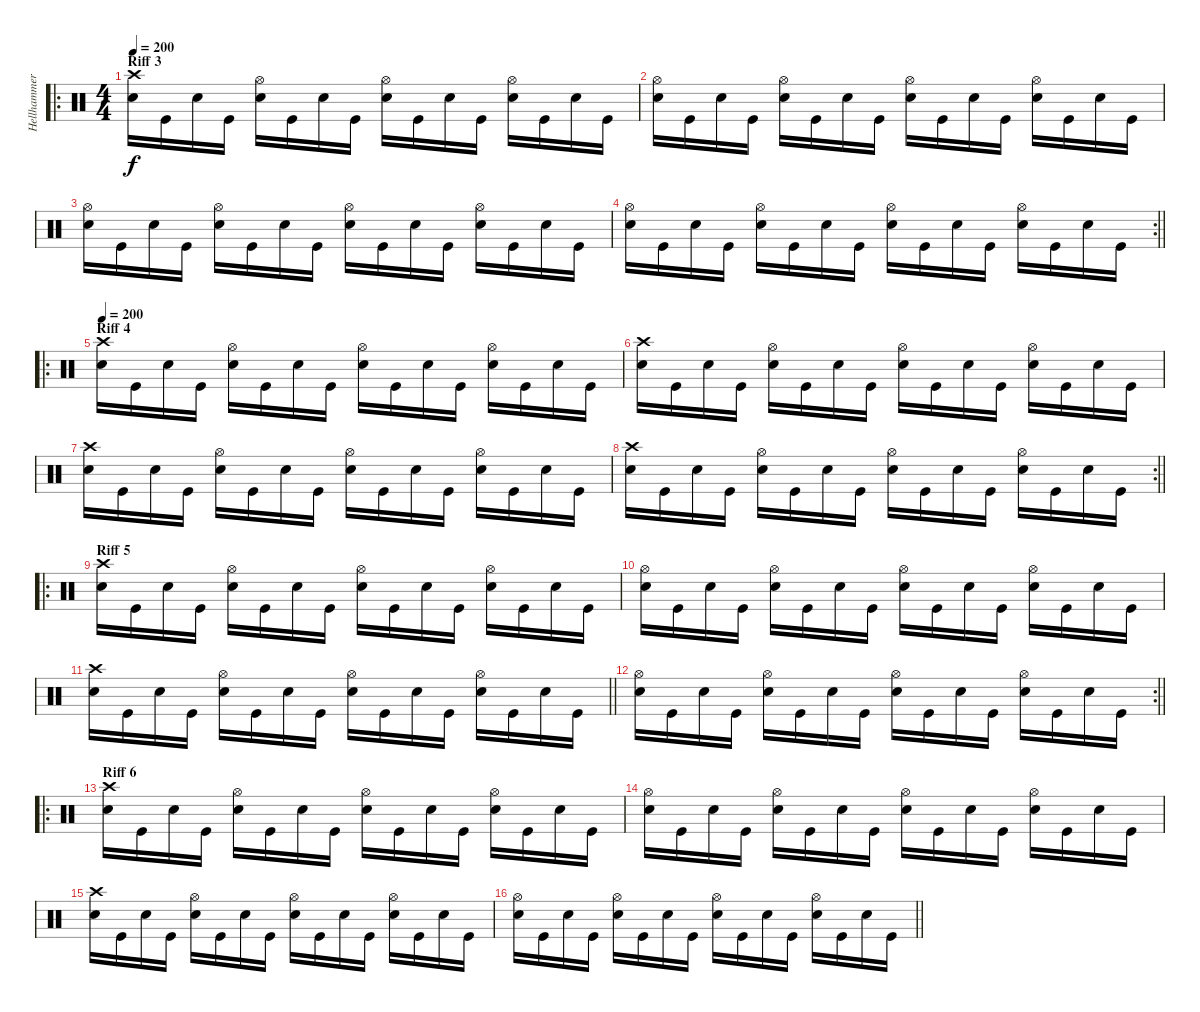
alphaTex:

\track ("Hellhammer" "Hellhammer") {instrument percussion}
\staff {score}
\articulation defaults
\ro
\ts (4 4)
\section ("" "Riff 3")
\tempo 200
\clef neutral
\ks c
("Crash high (hit)" "Snare (hit) 2").16{dy f} "Kick (hit)".16 "Snare (hit) 2".16 "Kick (hit)".16 ("Hi-Hat (open)" "Snare (hit) 2").16 "Kick (hit)".16 "Snare (hit) 2".16 "Kick (hit)".16 ("Hi-Hat (open)" "Snare (hit) 2").16 "Kick (hit)".16 "Snare (hit) 2".16 "Kick (hit)".16 ("Hi-Hat (open)" "Snare (hit) 2").16 "Kick (hit)".16 "Snare (hit) 2".16 "Kick (hit)".16 |
("Hi-Hat (open)" "Snare (hit) 2").16 "Kick (hit)".16 "Snare (hit) 2".16 "Kick (hit)".16 ("Hi-Hat (open)" "Snare (hit) 2").16 "Kick (hit)".16 "Snare (hit) 2".16 "Kick (hit)".16 ("Hi-Hat (open)" "Snare (hit) 2").16 "Kick (hit)".16 "Snare (hit) 2".16 "Kick (hit)".16 ("Hi-Hat (open)" "Snare (hit) 2").16 "Kick (hit)".16 "Snare (hit) 2".16 "Kick (hit)".16 |
("Hi-Hat (open)" "Snare (hit) 2").16 "Kick (hit)".16 "Snare (hit) 2".16 "Kick (hit)".16 ("Hi-Hat (open)" "Snare (hit) 2").16 "Kick (hit)".16 "Snare (hit) 2".16 "Kick (hit)".16 ("Hi-Hat (open)" "Snare (hit) 2").16 "Kick (hit)".16 "Snare (hit) 2".16 "Kick (hit)".16 ("Hi-Hat (open)" "Snare (hit) 2").16 "Kick (hit)".16 "Snare (hit) 2".16 "Kick (hit)".16 |
\rc 2
\barLineRight lightlight
("Hi-Hat (open)" "Snare (hit) 2").16 "Kick (hit)".16 "Snare (hit) 2".16 "Kick (hit)".16 ("Hi-Hat (open)" "Snare (hit) 2").16 "Kick (hit)".16 "Snare (hit) 2".16 "Kick (hit)".16 ("Hi-Hat (open)" "Snare (hit) 2").16 "Kick (hit)".16 "Snare (hit) 2".16 "Kick (hit)".16 ("Hi-Hat (open)" "Snare (hit) 2").16 "Kick (hit)".16 "Snare (hit) 2".16 "Kick (hit)".16 |
\ro
\section ("" "Riff 4")
\tempo 200
("Crash high (hit)" "Snare (hit) 2").16 "Kick (hit)".16 "Snare (hit) 2".16 "Kick (hit)".16 ("Hi-Hat (open)" "Snare (hit) 2").16 "Kick (hit)".16 "Snare (hit) 2".16 "Kick (hit)".16 ("Hi-Hat (open)" "Snare (hit) 2").16 "Kick (hit)".16 "Snare (hit) 2".16 "Kick (hit)".16 ("Hi-Hat (open)" "Snare (hit) 2").16 "Kick (hit)".16 "Snare (hit) 2".16 "Kick (hit)".16 |
("Crash high (hit)" "Snare (hit) 2").16 "Kick (hit)".16 "Snare (hit) 2".16 "Kick (hit)".16 ("Hi-Hat (open)" "Snare (hit) 2").16 "Kick (hit)".16 "Snare (hit) 2".16 "Kick (hit)".16 ("Hi-Hat (open)" "Snare (hit) 2").16 "Kick (hit)".16 "Snare (hit) 2".16 "Kick (hit)".16 ("Hi-Hat (open)" "Snare (hit) 2").16 "Kick (hit)".16 "Snare (hit) 2".16 "Kick (hit)".16 |
("Crash high (hit)" "Snare (hit) 2").16 "Kick (hit)".16 "Snare (hit) 2".16 "Kick (hit)".16 ("Hi-Hat (open)" "Snare (hit) 2").16 "Kick (hit)".16 "Snare (hit) 2".16 "Kick (hit)".16 ("Hi-Hat (open)" "Snare (hit) 2").16 "Kick (hit)".16 "Snare (hit) 2".16 "Kick (hit)".16 ("Hi-Hat (open)" "Snare (hit) 2").16 "Kick (hit)".16 "Snare (hit) 2".16 "Kick (hit)".16 |
\rc 2
\barLineRight lightlight
("Crash high (hit)" "Snare (hit) 2").16 "Kick (hit)".16 "Snare (hit) 2".16 "Kick (hit)".16 ("Hi-Hat (open)" "Snare (hit) 2").16 "Kick (hit)".16 "Snare (hit) 2".16 "Kick (hit)".16 ("Hi-Hat (open)" "Snare (hit) 2").16 "Kick (hit)".16 "Snare (hit) 2".16 "Kick (hit)".16 ("Hi-Hat (open)" "Snare (hit) 2").16 "Kick (hit)".16 "Snare (hit) 2".16 "Kick (hit)".16 |
\ro
\section ("" "Riff 5")
("Crash high (hit)" "Snare (hit) 2").16 "Kick (hit)".16 "Snare (hit) 2".16 "Kick (hit)".16 ("Hi-Hat (open)" "Snare (hit) 2").16 "Kick (hit)".16 "Snare (hit) 2".16 "Kick (hit)".16 ("Hi-Hat (open)" "Snare (hit) 2").16 "Kick (hit)".16 "Snare (hit) 2".16 "Kick (hit)".16 ("Hi-Hat (open)" "Snare (hit) 2").16 "Kick (hit)".16 "Snare (hit) 2".16 "Kick (hit)".16 |
("Hi-Hat (open)" "Snare (hit) 2").16 "Kick (hit)".16 "Snare (hit) 2".16 "Kick (hit)".16 ("Hi-Hat (open)" "Snare (hit) 2").16 "Kick (hit)".16 "Snare (hit) 2".16 "Kick (hit)".16 ("Hi-Hat (open)" "Snare (hit) 2").16 "Kick (hit)".16 "Snare (hit) 2".16 "Kick (hit)".16 ("Hi-Hat (open)" "Snare (hit) 2").16 "Kick (hit)".16 "Snare (hit) 2".16 "Kick (hit)".16 |
\barLineRight lightlight
("Crash high (hit)" "Snare (hit) 2").16 "Kick (hit)".16 "Snare (hit) 2".16 "Kick (hit)".16 ("Hi-Hat (open)" "Snare (hit) 2").16 "Kick (hit)".16 "Snare (hit) 2".16 "Kick (hit)".16 ("Hi-Hat (open)" "Snare (hit) 2").16 "Kick (hit)".16 "Snare (hit) 2".16 "Kick (hit)".16 ("Hi-Hat (open)" "Snare (hit) 2").16 "Kick (hit)".16 "Snare (hit) 2".16 "Kick (hit)".16 |
\rc 2
\barLineRight lightlight
("Hi-Hat (open)" "Snare (hit) 2").16 "Kick (hit)".16 "Snare (hit) 2".16 "Kick (hit)".16 ("Hi-Hat (open)" "Snare (hit) 2").16 "Kick (hit)".16 "Snare (hit) 2".16 "Kick (hit)".16 ("Hi-Hat (open)" "Snare (hit) 2").16 "Kick (hit)".16 "Snare (hit) 2".16 "Kick (hit)".16 ("Hi-Hat (open)" "Snare (hit) 2").16 "Kick (hit)".16 "Snare (hit) 2".16 "Kick (hit)".16 |
\ro
\section ("" "Riff 6")
("Crash high (hit)" "Snare (hit) 2").16 "Kick (hit)".16 "Snare (hit) 2".16 "Kick (hit)".16 ("Hi-Hat (open)" "Snare (hit) 2").16 "Kick (hit)".16 "Snare (hit) 2".16 "Kick (hit)".16 ("Hi-Hat (open)" "Snare (hit) 2").16 "Kick (hit)".16 "Snare (hit) 2".16 "Kick (hit)".16 ("Hi-Hat (open)" "Snare (hit) 2").16 "Kick (hit)".16 "Snare (hit) 2".16 "Kick (hit)".16 |
("Hi-Hat (open)" "Snare (hit) 2").16 "Kick (hit)".16 "Snare (hit) 2".16 "Kick (hit)".16 ("Hi-Hat (open)" "Snare (hit) 2").16 "Kick (hit)".16 "Snare (hit) 2".16 "Kick (hit)".16 ("Hi-Hat (open)" "Snare (hit) 2").16 "Kick (hit)".16 "Snare (hit) 2".16 "Kick (hit)".16 ("Hi-Hat (open)" "Snare (hit) 2").16 "Kick (hit)".16 "Snare (hit) 2".16 "Kick (hit)".16 |
("Crash high (hit)" "Snare (hit) 2").16 "Kick (hit)".16 "Snare (hit) 2".16 "Kick (hit)".16 ("Hi-Hat (open)" "Snare (hit) 2").16 "Kick (hit)".16 "Snare (hit) 2".16 "Kick (hit)".16 ("Hi-Hat (open)" "Snare (hit) 2").16 "Kick (hit)".16 "Snare (hit) 2".16 "Kick (hit)".16 ("Hi-Hat (open)" "Snare (hit) 2").16 "Kick (hit)".16 "Snare (hit) 2".16 "Kick (hit)".16 |
\barLineRight lightlight
("Hi-Hat (open)" "Snare (hit) 2").16 "Kick (hit)".16 "Snare (hit) 2".16 "Kick (hit)".16 ("Hi-Hat (open)" "Snare (hit) 2").16 "Kick (hit)".16 "Snare (hit) 2".16 "Kick (hit)".16 ("Hi-Hat (open)" "Snare (hit) 2").16 "Kick (hit)".16 "Snare (hit) 2".16 "Kick (hit)".16 ("Hi-Hat (open)" "Snare (hit) 2").16 "Kick (hit)".16 "Snare (hit) 2".16 "Kick (hit)".16
